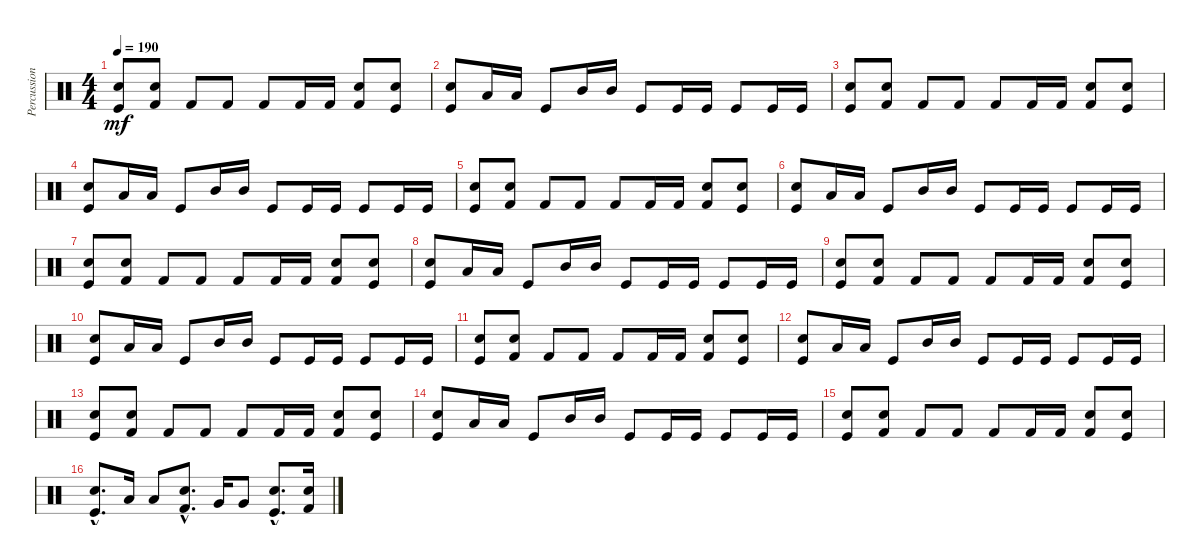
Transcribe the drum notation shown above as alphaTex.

\track ("Percussion" "Percussion") {instrument percussion}
\staff {score}
\articulation defaults
\ts (4 4)
\tempo 190
\clef neutral
\ks c
("Snare (hit) 2" "Kick (hit)").8{dy mf} ("Electric Snare (hit)" "Kick (hit) 2").8 "Kick (hit) 2".8 "Kick (hit) 2".8 "Kick (hit) 2".8 "Kick (hit) 2".16 "Kick (hit) 2".16 ("Electric Snare (hit)" "Kick (hit) 2").8 ("Snare (hit) 2" "Kick (hit)").8 |
("Electric Snare (hit)" "Kick (hit)").8 "Low Tom (hit)".16 "Low Tom (hit)".16 "Kick (hit)".8 "Mid Tom (hit)".16 "Mid Tom (hit)".16 "Kick (hit)".8 "Kick (hit)".16 "Kick (hit)".16 "Kick (hit)".8 "Kick (hit)".16 "Kick (hit)".16 |
("Snare (hit) 2" "Kick (hit)").8 ("Electric Snare (hit)" "Kick (hit) 2").8 "Kick (hit) 2".8 "Kick (hit) 2".8 "Kick (hit) 2".8 "Kick (hit) 2".16 "Kick (hit) 2".16 ("Electric Snare (hit)" "Kick (hit) 2").8 ("Snare (hit) 2" "Kick (hit)").8 |
("Electric Snare (hit)" "Kick (hit)").8 "Low Tom (hit)".16 "Low Tom (hit)".16 "Kick (hit)".8 "Mid Tom (hit)".16 "Mid Tom (hit)".16 "Kick (hit)".8 "Kick (hit)".16 "Kick (hit)".16 "Kick (hit)".8 "Kick (hit)".16 "Kick (hit)".16 |
("Snare (hit) 2" "Kick (hit)").8 ("Electric Snare (hit)" "Kick (hit) 2").8 "Kick (hit) 2".8 "Kick (hit) 2".8 "Kick (hit) 2".8 "Kick (hit) 2".16 "Kick (hit) 2".16 ("Electric Snare (hit)" "Kick (hit) 2").8 ("Snare (hit) 2" "Kick (hit)").8 |
("Electric Snare (hit)" "Kick (hit)").8 "Low Tom (hit)".16 "Low Tom (hit)".16 "Kick (hit)".8 "Mid Tom (hit)".16 "Mid Tom (hit)".16 "Kick (hit)".8 "Kick (hit)".16 "Kick (hit)".16 "Kick (hit)".8 "Kick (hit)".16 "Kick (hit)".16 |
("Snare (hit) 2" "Kick (hit)").8 ("Electric Snare (hit)" "Kick (hit) 2").8 "Kick (hit) 2".8 "Kick (hit) 2".8 "Kick (hit) 2".8 "Kick (hit) 2".16 "Kick (hit) 2".16 ("Electric Snare (hit)" "Kick (hit) 2").8 ("Snare (hit) 2" "Kick (hit)").8 |
("Electric Snare (hit)" "Kick (hit)").8 "Low Tom (hit)".16 "Low Tom (hit)".16 "Kick (hit)".8 "Mid Tom (hit)".16 "Mid Tom (hit)".16 "Kick (hit)".8 "Kick (hit)".16 "Kick (hit)".16 "Kick (hit)".8 "Kick (hit)".16 "Kick (hit)".16 |
("Snare (hit) 2" "Kick (hit)").8 ("Electric Snare (hit)" "Kick (hit) 2").8 "Kick (hit) 2".8 "Kick (hit) 2".8 "Kick (hit) 2".8 "Kick (hit) 2".16 "Kick (hit) 2".16 ("Electric Snare (hit)" "Kick (hit) 2").8 ("Snare (hit) 2" "Kick (hit)").8 |
("Electric Snare (hit)" "Kick (hit)").8 "Low Tom (hit)".16 "Low Tom (hit)".16 "Kick (hit)".8 "Mid Tom (hit)".16 "Mid Tom (hit)".16 "Kick (hit)".8 "Kick (hit)".16 "Kick (hit)".16 "Kick (hit)".8 "Kick (hit)".16 "Kick (hit)".16 |
("Snare (hit) 2" "Kick (hit)").8 ("Electric Snare (hit)" "Kick (hit) 2").8 "Kick (hit) 2".8 "Kick (hit) 2".8 "Kick (hit) 2".8 "Kick (hit) 2".16 "Kick (hit) 2".16 ("Electric Snare (hit)" "Kick (hit) 2").8 ("Snare (hit) 2" "Kick (hit)").8 |
("Electric Snare (hit)" "Kick (hit)").8 "Low Tom (hit)".16 "Low Tom (hit)".16 "Kick (hit)".8 "Mid Tom (hit)".16 "Mid Tom (hit)".16 "Kick (hit)".8 "Kick (hit)".16 "Kick (hit)".16 "Kick (hit)".8 "Kick (hit)".16 "Kick (hit)".16 |
("Snare (hit) 2" "Kick (hit)").8 ("Electric Snare (hit)" "Kick (hit) 2").8 "Kick (hit) 2".8 "Kick (hit) 2".8 "Kick (hit) 2".8 "Kick (hit) 2".16 "Kick (hit) 2".16 ("Electric Snare (hit)" "Kick (hit) 2").8 ("Snare (hit) 2" "Kick (hit)").8 |
("Electric Snare (hit)" "Kick (hit)").8 "Low Tom (hit)".16 "Low Tom (hit)".16 "Kick (hit)".8 "Mid Tom (hit)".16 "Mid Tom (hit)".16 "Kick (hit)".8 "Kick (hit)".16 "Kick (hit)".16 "Kick (hit)".8 "Kick (hit)".16 "Kick (hit)".16 |
("Snare (hit) 2" "Kick (hit)").8 ("Electric Snare (hit)" "Kick (hit) 2").8 "Kick (hit) 2".8 "Kick (hit) 2".8 "Kick (hit) 2".8 "Kick (hit) 2".16 "Kick (hit) 2".16 ("Electric Snare (hit)" "Kick (hit) 2").8 ("Snare (hit) 2" "Kick (hit)").8 |
("Electric Snare (hit)"{hac} "Kick (hit)"{hac}).8{d} "Low Tom (hit)".16 "Low Tom (hit)".8 ("Electric Snare (hit)"{hac} "Kick (hit) 2"{hac}).8{d} "Very Low Tom (hit)".16 "Very Low Tom (hit)".8 ("Snare (hit) 2"{hac} "Kick (hit)"{hac}).8{d} ("Electric Snare (hit)" "Kick (hit) 2").16
